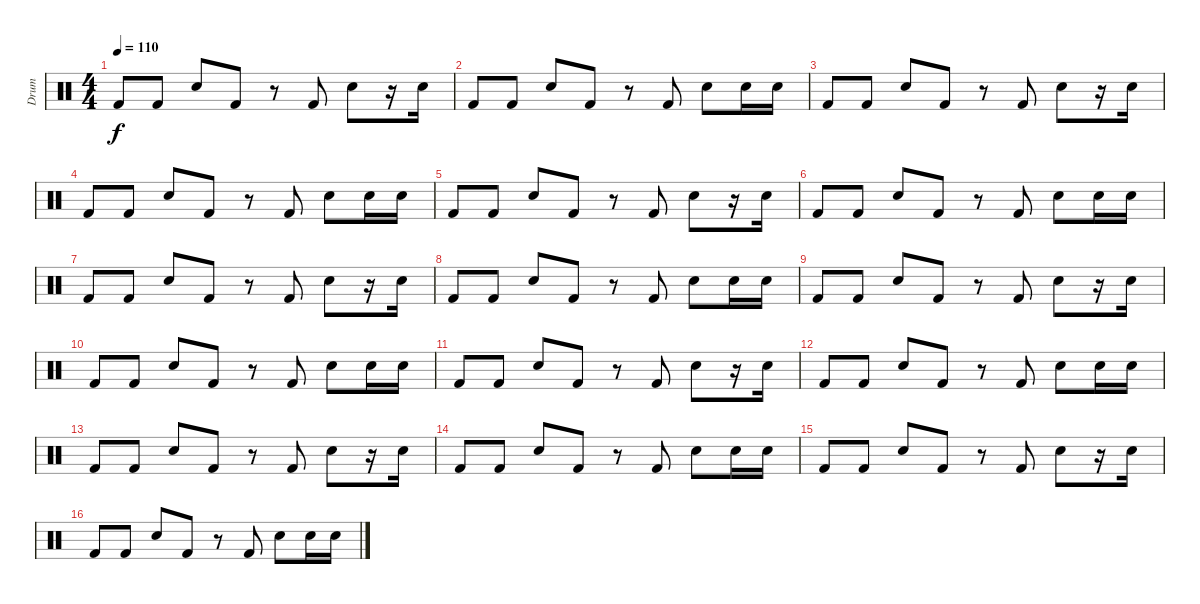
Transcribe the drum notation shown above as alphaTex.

\track ("Drum" "Drum") {instrument percussion}
\staff {score}
\articulation defaults
\ts (4 4)
\tempo 110
\clef neutral
\ks c "Kick (hit) 2".8{dy f} "Kick (hit) 2".8 "Snare (hit) 2".8 "Kick (hit) 2".8
r.8 "Kick (hit) 2".8 "Snare (hit) 2".8 r.16 "Snare (hit) 2".16 |
"Kick (hit) 2".8 "Kick (hit) 2".8 "Snare (hit) 2".8 "Kick (hit) 2".8 r.8 "Kick (hit) 2".8 "Snare (hit) 2".8 "Snare (hit) 2".16 "Snare (hit) 2".16 |
"Kick (hit) 2".8 "Kick (hit) 2".8 "Snare (hit) 2".8 "Kick (hit) 2".8 r.8 "Kick (hit) 2".8 "Snare (hit) 2".8 r.16 "Snare (hit) 2".16 |
"Kick (hit) 2".8 "Kick (hit) 2".8 "Snare (hit) 2".8 "Kick (hit) 2".8 r.8 "Kick (hit) 2".8 "Snare (hit) 2".8 "Snare (hit) 2".16 "Snare (hit) 2".16 |
"Kick (hit) 2".8 "Kick (hit) 2".8 "Snare (hit) 2".8 "Kick (hit) 2".8 r.8 "Kick (hit) 2".8 "Snare (hit) 2".8 r.16 "Snare (hit) 2".16 |
"Kick (hit) 2".8 "Kick (hit) 2".8 "Snare (hit) 2".8 "Kick (hit) 2".8 r.8 "Kick (hit) 2".8 "Snare (hit) 2".8 "Snare (hit) 2".16 "Snare (hit) 2".16 |
"Kick (hit) 2".8 "Kick (hit) 2".8 "Snare (hit) 2".8 "Kick (hit) 2".8 r.8 "Kick (hit) 2".8 "Snare (hit) 2".8 r.16 "Snare (hit) 2".16 |
"Kick (hit) 2".8 "Kick (hit) 2".8 "Snare (hit) 2".8 "Kick (hit) 2".8 r.8 "Kick (hit) 2".8 "Snare (hit) 2".8 "Snare (hit) 2".16 "Snare (hit) 2".16 |
"Kick (hit) 2".8 "Kick (hit) 2".8 "Snare (hit) 2".8 "Kick (hit) 2".8 r.8 "Kick (hit) 2".8 "Snare (hit) 2".8 r.16 "Snare (hit) 2".16 |
"Kick (hit) 2".8 "Kick (hit) 2".8 "Snare (hit) 2".8 "Kick (hit) 2".8 r.8 "Kick (hit) 2".8 "Snare (hit) 2".8 "Snare (hit) 2".16 "Snare (hit) 2".16 |
"Kick (hit) 2".8 "Kick (hit) 2".8 "Snare (hit) 2".8 "Kick (hit) 2".8 r.8 "Kick (hit) 2".8 "Snare (hit) 2".8 r.16 "Snare (hit) 2".16 |
"Kick (hit) 2".8 "Kick (hit) 2".8 "Snare (hit) 2".8 "Kick (hit) 2".8 r.8 "Kick (hit) 2".8 "Snare (hit) 2".8 "Snare (hit) 2".16 "Snare (hit) 2".16 |
"Kick (hit) 2".8 "Kick (hit) 2".8 "Snare (hit) 2".8 "Kick (hit) 2".8 r.8 "Kick (hit) 2".8 "Snare (hit) 2".8 r.16 "Snare (hit) 2".16 |
"Kick (hit) 2".8 "Kick (hit) 2".8 "Snare (hit) 2".8 "Kick (hit) 2".8 r.8 "Kick (hit) 2".8 "Snare (hit) 2".8 "Snare (hit) 2".16 "Snare (hit) 2".16 |
"Kick (hit) 2".8 "Kick (hit) 2".8 "Snare (hit) 2".8 "Kick (hit) 2".8 r.8 "Kick (hit) 2".8 "Snare (hit) 2".8 r.16 "Snare (hit) 2".16 |
"Kick (hit) 2".8 "Kick (hit) 2".8 "Snare (hit) 2".8 "Kick (hit) 2".8 r.8 "Kick (hit) 2".8 "Snare (hit) 2".8 "Snare (hit) 2".16 "Snare (hit) 2".16
